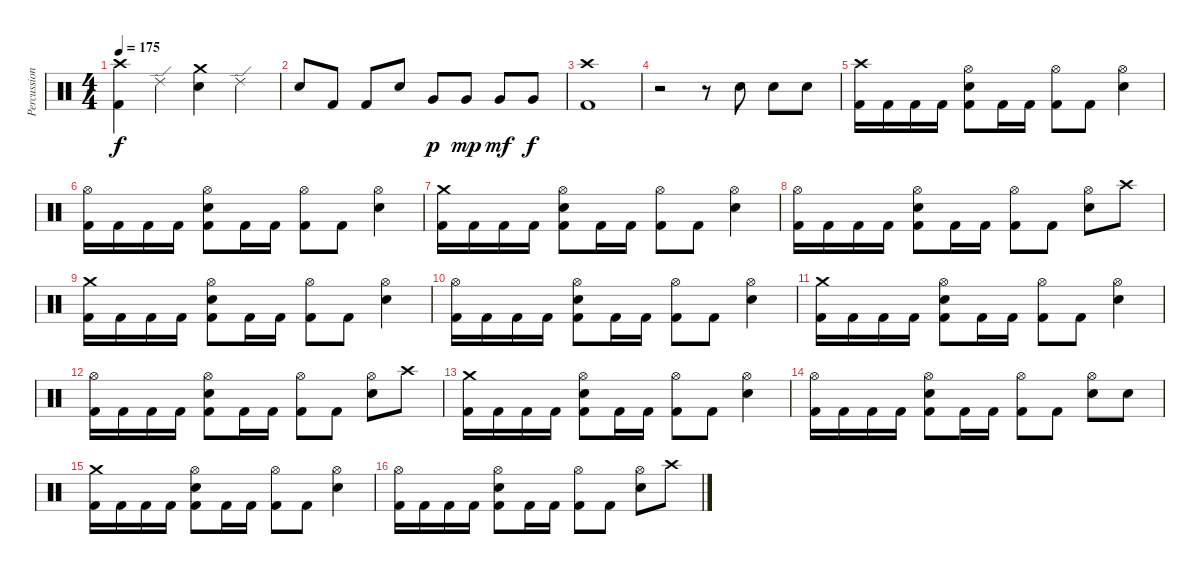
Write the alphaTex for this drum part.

\track ("Percussion" "Percussion") {instrument percussion}
\staff {score}
\articulation defaults
\ts (4 4)
\tempo 175
\clef neutral
\ks c
("Crash high (hit)" "Kick (hit) 2").4{dy f} "Ride (edge) 2".4 ("Crash medium (hit)" "Snare (hit) 2").4 "Ride (edge) 2".4 |
"Snare (hit) 2".8 "Kick (hit) 2".8 "Kick (hit) 2".8 "Snare (hit) 2".8 "Very Low Tom (hit)".8{dy p} "Very Low Tom (hit)".8{dy mp} "Very Low Tom (hit)".8{dy mf} "Very Low Tom (hit)".8{dy f} |
("Crash high (hit)" "Kick (hit) 2").1 |
r.2 r.8 "Snare (hit) 2".8 "Snare (hit) 2".8 "Snare (hit) 2".8 |
("Crash high (hit)" "Kick (hit) 2").16 "Kick (hit) 2".16 "Kick (hit) 2".16 "Kick (hit) 2".16 ("Hi-Hat (open)" "Snare (hit) 2" "Kick (hit) 2").8 "Kick (hit) 2".16 "Kick (hit) 2".16 ("Hi-Hat (open)" "Kick (hit) 2").8 "Kick (hit) 2".8 ("Hi-Hat (open)" "Snare (hit) 2").4 |
("Hi-Hat (open)" "Kick (hit) 2").16 "Kick (hit) 2".16 "Kick (hit) 2".16 "Kick (hit) 2".16 ("Hi-Hat (open)" "Snare (hit) 2" "Kick (hit) 2").8 "Kick (hit) 2".16 "Kick (hit) 2".16 ("Hi-Hat (open)" "Kick (hit) 2").8 "Kick (hit) 2".8 ("Hi-Hat (open)" "Snare (hit) 2").4 |
("Crash medium (hit)" "Kick (hit) 2").16 "Kick (hit) 2".16 "Kick (hit) 2".16 "Kick (hit) 2".16 ("Hi-Hat (open)" "Snare (hit) 2" "Kick (hit) 2").8 "Kick (hit) 2".16 "Kick (hit) 2".16 ("Hi-Hat (open)" "Kick (hit) 2").8 "Kick (hit) 2".8 ("Hi-Hat (open)" "Snare (hit) 2").4 |
("Hi-Hat (open)" "Kick (hit) 2").16 "Kick (hit) 2".16 "Kick (hit) 2".16 "Kick (hit) 2".16 ("Hi-Hat (open)" "Snare (hit) 2" "Kick (hit) 2").8 "Kick (hit) 2".16 "Kick (hit) 2".16 ("Hi-Hat (open)" "Kick (hit) 2").8 "Kick (hit) 2".8 ("Hi-Hat (open)" "Snare (hit) 2").8 "Crash high (hit)".8 |
("Crash medium (hit)" "Kick (hit) 2").16 "Kick (hit) 2".16 "Kick (hit) 2".16 "Kick (hit) 2".16 ("Hi-Hat (open)" "Snare (hit) 2" "Kick (hit) 2").8 "Kick (hit) 2".16 "Kick (hit) 2".16 ("Hi-Hat (open)" "Kick (hit) 2").8 "Kick (hit) 2".8 ("Hi-Hat (open)" "Snare (hit) 2").4 |
("Hi-Hat (open)" "Kick (hit) 2").16 "Kick (hit) 2".16 "Kick (hit) 2".16 "Kick (hit) 2".16 ("Hi-Hat (open)" "Snare (hit) 2" "Kick (hit) 2").8 "Kick (hit) 2".16 "Kick (hit) 2".16 ("Hi-Hat (open)" "Kick (hit) 2").8 "Kick (hit) 2".8 ("Hi-Hat (open)" "Snare (hit) 2").4 |
("Crash medium (hit)" "Kick (hit) 2").16 "Kick (hit) 2".16 "Kick (hit) 2".16 "Kick (hit) 2".16 ("Hi-Hat (open)" "Snare (hit) 2" "Kick (hit) 2").8 "Kick (hit) 2".16 "Kick (hit) 2".16 ("Hi-Hat (open)" "Kick (hit) 2").8 "Kick (hit) 2".8 ("Hi-Hat (open)" "Snare (hit) 2").4 |
("Hi-Hat (open)" "Kick (hit) 2").16 "Kick (hit) 2".16 "Kick (hit) 2".16 "Kick (hit) 2".16 ("Hi-Hat (open)" "Snare (hit) 2" "Kick (hit) 2").8 "Kick (hit) 2".16 "Kick (hit) 2".16 ("Hi-Hat (open)" "Kick (hit) 2").8 "Kick (hit) 2".8 ("Hi-Hat (open)" "Snare (hit) 2").8 "Crash high (hit)".8 |
("Crash medium (hit)" "Kick (hit) 2").16 "Kick (hit) 2".16 "Kick (hit) 2".16 "Kick (hit) 2".16 ("Hi-Hat (open)" "Snare (hit) 2" "Kick (hit) 2").8 "Kick (hit) 2".16 "Kick (hit) 2".16 ("Hi-Hat (open)" "Kick (hit) 2").8 "Kick (hit) 2".8 ("Hi-Hat (open)" "Snare (hit) 2").4 |
("Hi-Hat (open)" "Kick (hit) 2").16 "Kick (hit) 2".16 "Kick (hit) 2".16 "Kick (hit) 2".16 ("Hi-Hat (open)" "Snare (hit) 2" "Kick (hit) 2").8 "Kick (hit) 2".16 "Kick (hit) 2".16 ("Hi-Hat (open)" "Kick (hit) 2").8 "Kick (hit) 2".8 ("Hi-Hat (open)" "Snare (hit) 2").8 "Snare (hit) 2".8 |
("Crash medium (hit)" "Kick (hit) 2").16 "Kick (hit) 2".16 "Kick (hit) 2".16 "Kick (hit) 2".16 ("Hi-Hat (open)" "Snare (hit) 2" "Kick (hit) 2").8 "Kick (hit) 2".16 "Kick (hit) 2".16 ("Hi-Hat (open)" "Kick (hit) 2").8 "Kick (hit) 2".8 ("Hi-Hat (open)" "Snare (hit) 2").4 |
("Hi-Hat (open)" "Kick (hit) 2").16 "Kick (hit) 2".16 "Kick (hit) 2".16 "Kick (hit) 2".16 ("Hi-Hat (open)" "Snare (hit) 2" "Kick (hit) 2").8 "Kick (hit) 2".16 "Kick (hit) 2".16 ("Hi-Hat (open)" "Kick (hit) 2").8 "Kick (hit) 2".8 ("Hi-Hat (open)" "Snare (hit) 2").8 "Crash high (hit)".8
